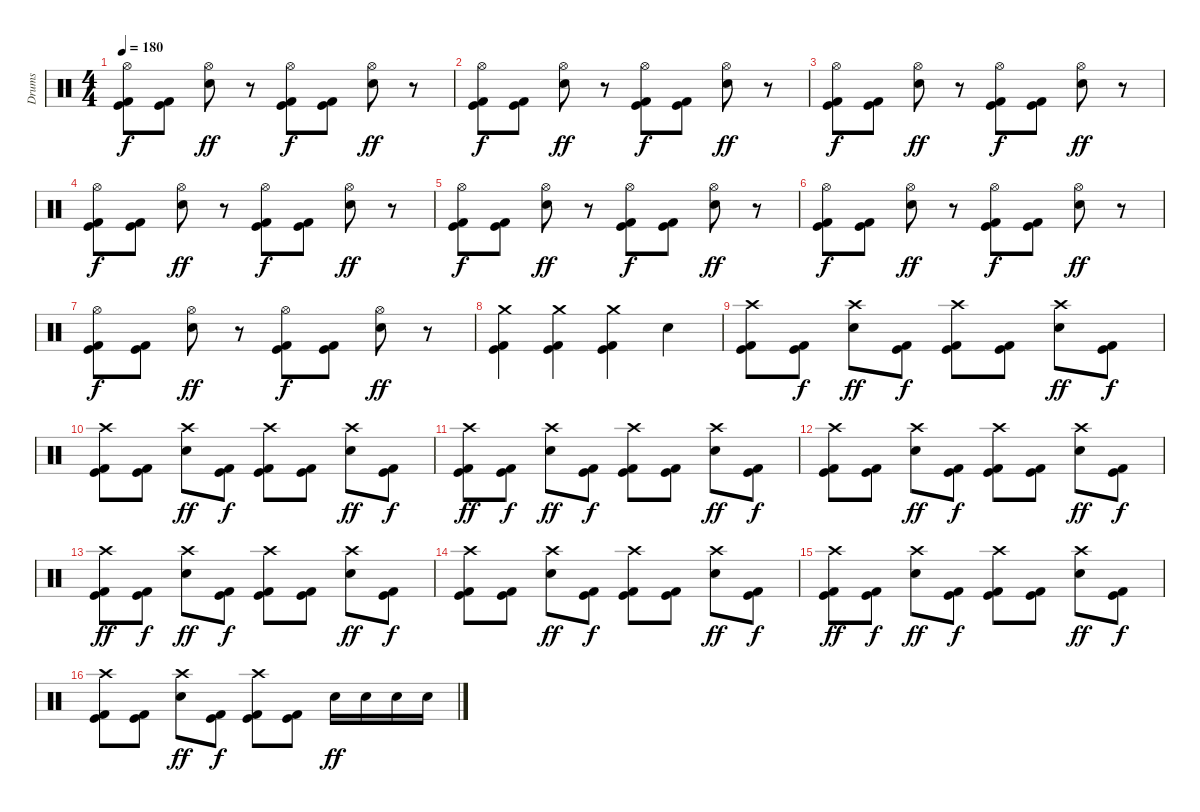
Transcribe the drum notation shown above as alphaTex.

\track ("Drums" "Drums") {instrument percussion}
\staff {score}
\articulation defaults
\ts (4 4)
\tempo 180
\clef neutral
\ks c
("Hi-Hat (open)" "Kick (hit)" "Kick (hit) 2").8{dy f} ("Kick (hit)" "Kick (hit) 2").8 ("Hi-Hat (open)" "Snare (hit) 2").8{dy ff} r.8 ("Hi-Hat (open)" "Kick (hit)" "Kick (hit) 2").8{dy f} ("Kick (hit)" "Kick (hit) 2").8 ("Hi-Hat (open)" "Snare (hit) 2").8{dy ff} r.8 |
("Hi-Hat (open)" "Kick (hit)" "Kick (hit) 2").8{dy f} ("Kick (hit)" "Kick (hit) 2").8 ("Hi-Hat (open)" "Snare (hit) 2").8{dy ff} r.8 ("Hi-Hat (open)" "Kick (hit)" "Kick (hit) 2").8{dy f} ("Kick (hit)" "Kick (hit) 2").8 ("Hi-Hat (open)" "Snare (hit) 2").8{dy ff} r.8 |
("Hi-Hat (open)" "Kick (hit)" "Kick (hit) 2").8{dy f} ("Kick (hit)" "Kick (hit) 2").8 ("Hi-Hat (open)" "Snare (hit) 2").8{dy ff} r.8 ("Hi-Hat (open)" "Kick (hit)" "Kick (hit) 2").8{dy f} ("Kick (hit)" "Kick (hit) 2").8 ("Hi-Hat (open)" "Snare (hit) 2").8{dy ff} r.8 |
("Hi-Hat (open)" "Kick (hit)" "Kick (hit) 2").8{dy f} ("Kick (hit)" "Kick (hit) 2").8 ("Hi-Hat (open)" "Snare (hit) 2").8{dy ff} r.8 ("Hi-Hat (open)" "Kick (hit)" "Kick (hit) 2").8{dy f} ("Kick (hit)" "Kick (hit) 2").8 ("Hi-Hat (open)" "Snare (hit) 2").8{dy ff} r.8 |
("Hi-Hat (open)" "Kick (hit)" "Kick (hit) 2").8{dy f} ("Kick (hit)" "Kick (hit) 2").8 ("Hi-Hat (open)" "Snare (hit) 2").8{dy ff} r.8 ("Hi-Hat (open)" "Kick (hit)" "Kick (hit) 2").8{dy f} ("Kick (hit)" "Kick (hit) 2").8 ("Hi-Hat (open)" "Snare (hit) 2").8{dy ff} r.8 |
("Hi-Hat (open)" "Kick (hit)" "Kick (hit) 2").8{dy f} ("Kick (hit)" "Kick (hit) 2").8 ("Hi-Hat (open)" "Snare (hit) 2").8{dy ff} r.8 ("Hi-Hat (open)" "Kick (hit)" "Kick (hit) 2").8{dy f} ("Kick (hit)" "Kick (hit) 2").8 ("Hi-Hat (open)" "Snare (hit) 2").8{dy ff} r.8 |
("Hi-Hat (open)" "Kick (hit)" "Kick (hit) 2").8{dy f} ("Kick (hit)" "Kick (hit) 2").8 ("Hi-Hat (open)" "Snare (hit) 2").8{dy ff} r.8 ("Hi-Hat (open)" "Kick (hit)" "Kick (hit) 2").8{dy f} ("Kick (hit)" "Kick (hit) 2").8 ("Hi-Hat (open)" "Snare (hit) 2").8{dy ff} r.8 |
("Crash medium (hit)" "Kick (hit)" "Kick (hit) 2").4 ("Crash medium (hit)" "Kick (hit)" "Kick (hit) 2").4 ("Crash medium (hit)" "Kick (hit)" "Kick (hit) 2").4 "Snare (hit) 2".4 |
("Crash high (hit)" "Kick (hit)" "Kick (hit) 2").8 ("Kick (hit)" "Kick (hit) 2").8{dy f} ("Crash high (hit)" "Snare (hit) 2").8{dy ff} ("Kick (hit)" "Kick (hit) 2").8{dy f} ("Crash high (hit)" "Kick (hit)" "Kick (hit) 2").8 ("Kick (hit)" "Kick (hit) 2").8 ("Crash high (hit)" "Snare (hit) 2").8{dy ff} ("Kick (hit)" "Kick (hit) 2").8{dy f} |
("Crash high (hit)" "Kick (hit)" "Kick (hit) 2").8 ("Kick (hit)" "Kick (hit) 2").8 ("Crash high (hit)" "Snare (hit) 2").8{dy ff} ("Kick (hit)" "Kick (hit) 2").8{dy f} ("Crash high (hit)" "Kick (hit)" "Kick (hit) 2").8 ("Kick (hit)" "Kick (hit) 2").8 ("Crash high (hit)" "Snare (hit) 2").8{dy ff} ("Kick (hit)" "Kick (hit) 2").8{dy f} |
("Crash high (hit)" "Kick (hit)" "Kick (hit) 2").8{dy ff} ("Kick (hit)" "Kick (hit) 2").8{dy f} ("Crash high (hit)" "Snare (hit) 2").8{dy ff} ("Kick (hit)" "Kick (hit) 2").8{dy f} ("Crash high (hit)" "Kick (hit)" "Kick (hit) 2").8 ("Kick (hit)" "Kick (hit) 2").8 ("Crash high (hit)" "Snare (hit) 2").8{dy ff} ("Kick (hit)" "Kick (hit) 2").8{dy f} |
("Crash high (hit)" "Kick (hit)" "Kick (hit) 2").8 ("Kick (hit)" "Kick (hit) 2").8 ("Crash high (hit)" "Snare (hit) 2").8{dy ff} ("Kick (hit)" "Kick (hit) 2").8{dy f} ("Crash high (hit)" "Kick (hit)" "Kick (hit) 2").8 ("Kick (hit)" "Kick (hit) 2").8 ("Crash high (hit)" "Snare (hit) 2").8{dy ff} ("Kick (hit)" "Kick (hit) 2").8{dy f} |
("Crash high (hit)" "Kick (hit)" "Kick (hit) 2").8{dy ff} ("Kick (hit)" "Kick (hit) 2").8{dy f} ("Crash high (hit)" "Snare (hit) 2").8{dy ff} ("Kick (hit)" "Kick (hit) 2").8{dy f} ("Crash high (hit)" "Kick (hit)" "Kick (hit) 2").8 ("Kick (hit)" "Kick (hit) 2").8 ("Crash high (hit)" "Snare (hit) 2").8{dy ff} ("Kick (hit)" "Kick (hit) 2").8{dy f} |
("Crash high (hit)" "Kick (hit)" "Kick (hit) 2").8 ("Kick (hit)" "Kick (hit) 2").8 ("Crash high (hit)" "Snare (hit) 2").8{dy ff} ("Kick (hit)" "Kick (hit) 2").8{dy f} ("Crash high (hit)" "Kick (hit)" "Kick (hit) 2").8 ("Kick (hit)" "Kick (hit) 2").8 ("Crash high (hit)" "Snare (hit) 2").8{dy ff} ("Kick (hit)" "Kick (hit) 2").8{dy f} |
("Crash high (hit)" "Kick (hit)" "Kick (hit) 2").8{dy ff} ("Kick (hit)" "Kick (hit) 2").8{dy f} ("Crash high (hit)" "Snare (hit) 2").8{dy ff} ("Kick (hit)" "Kick (hit) 2").8{dy f} ("Crash high (hit)" "Kick (hit)" "Kick (hit) 2").8 ("Kick (hit)" "Kick (hit) 2").8 ("Crash high (hit)" "Snare (hit) 2").8{dy ff} ("Kick (hit)" "Kick (hit) 2").8{dy f} |
("Crash high (hit)" "Kick (hit)" "Kick (hit) 2").8 ("Kick (hit)" "Kick (hit) 2").8 ("Crash high (hit)" "Snare (hit) 2").8{dy ff} ("Kick (hit)" "Kick (hit) 2").8{dy f} ("Crash high (hit)" "Kick (hit)" "Kick (hit) 2").8 ("Kick (hit)" "Kick (hit) 2").8 "Snare (hit) 2".16{dy ff} "Snare (hit) 2".16 "Snare (hit) 2".16 "Snare (hit) 2".16
